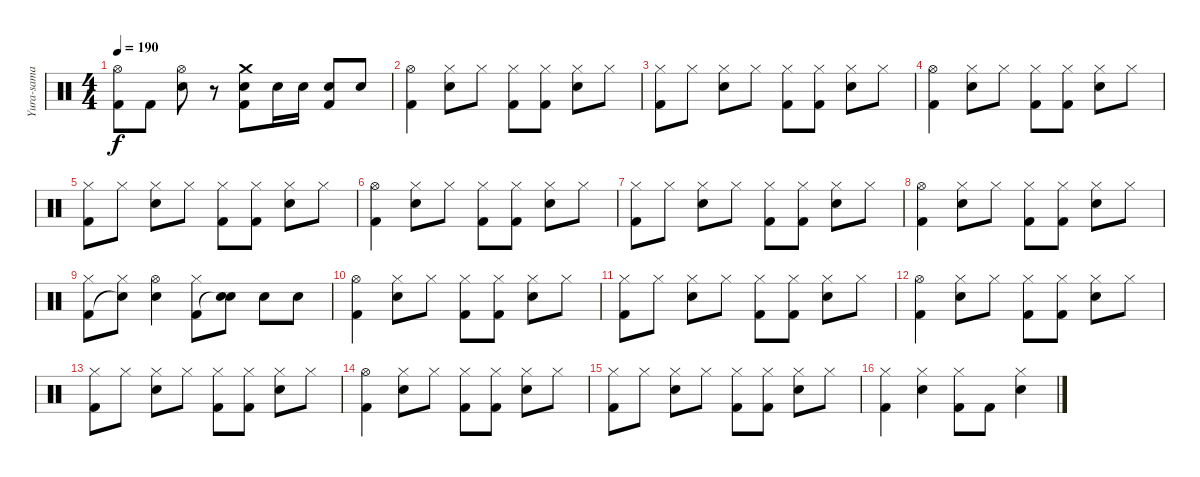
\track ("Yura-sama" "Yura-sama") {instrument percussion}
\staff {score}
\articulation defaults
\ts (4 4)
\tempo 190
\clef neutral
\ks c
("Hi-Hat (open)" "Kick (hit) 2").8{dy f} "Kick (hit) 2".8 ("Hi-Hat (open)" "Electric Snare (hit)").8 r.8 ("Kick (hit) 2" "Electric Snare (hit)" "Crash medium (hit)").8 "Electric Snare (hit)".16 "Electric Snare (hit)".16 ("Kick (hit) 2" "Electric Snare (hit)").8 "Electric Snare (hit)".8 |
("Hi-Hat (open)" "Kick (hit) 2").4 ("Hi-Hat (closed)" "Electric Snare (hit)").8 "Hi-Hat (closed)".8 ("Hi-Hat (closed)" "Kick (hit) 2").8 ("Hi-Hat (closed)" "Kick (hit) 2").8 ("Hi-Hat (closed)" "Electric Snare (hit)").8 "Hi-Hat (closed)".8 |
("Hi-Hat (closed)" "Kick (hit) 2").8 "Hi-Hat (closed)".8 ("Hi-Hat (closed)" "Electric Snare (hit)").8 "Hi-Hat (closed)".8 ("Hi-Hat (closed)" "Kick (hit) 2").8 ("Hi-Hat (closed)" "Kick (hit) 2").8 ("Hi-Hat (closed)" "Electric Snare (hit)").8 "Hi-Hat (closed)".8 |
("Hi-Hat (open)" "Kick (hit) 2").4 ("Hi-Hat (closed)" "Electric Snare (hit)").8 "Hi-Hat (closed)".8 ("Hi-Hat (closed)" "Kick (hit) 2").8 ("Hi-Hat (closed)" "Kick (hit) 2").8 ("Hi-Hat (closed)" "Electric Snare (hit)").8 "Hi-Hat (closed)".8 |
("Hi-Hat (closed)" "Kick (hit) 2").8 "Hi-Hat (closed)".8 ("Hi-Hat (closed)" "Electric Snare (hit)").8 "Hi-Hat (closed)".8 ("Hi-Hat (closed)" "Kick (hit) 2").8 ("Hi-Hat (closed)" "Kick (hit) 2").8 ("Hi-Hat (closed)" "Electric Snare (hit)").8 "Hi-Hat (closed)".8 |
("Hi-Hat (open)" "Kick (hit) 2").4 ("Hi-Hat (closed)" "Electric Snare (hit)").8 "Hi-Hat (closed)".8 ("Hi-Hat (closed)" "Kick (hit) 2").8 ("Hi-Hat (closed)" "Kick (hit) 2").8 ("Hi-Hat (closed)" "Electric Snare (hit)").8 "Hi-Hat (closed)".8 |
("Hi-Hat (closed)" "Kick (hit) 2").8 "Hi-Hat (closed)".8 ("Hi-Hat (closed)" "Electric Snare (hit)").8 "Hi-Hat (closed)".8 ("Hi-Hat (closed)" "Kick (hit) 2").8 ("Hi-Hat (closed)" "Kick (hit) 2").8 ("Hi-Hat (closed)" "Electric Snare (hit)").8 "Hi-Hat (closed)".8 |
("Hi-Hat (open)" "Kick (hit) 2").4 ("Hi-Hat (closed)" "Electric Snare (hit)").8 "Hi-Hat (closed)".8 ("Hi-Hat (closed)" "Kick (hit) 2").8 ("Hi-Hat (closed)" "Kick (hit) 2").8 ("Hi-Hat (closed)" "Electric Snare (hit)").8 "Hi-Hat (closed)".8 |
("Hi-Hat (closed)" "Kick (hit) 2").8 ("Hi-Hat (closed)" "Snare (hit)"{t}).8 ("Hi-Hat (open)" "Electric Snare (hit)").4 ("Hi-Hat (closed)" "Kick (hit) 2").8 ("Electric Snare (hit)" "Snare (hit)"{t}).8 "Electric Snare (hit)".8 "Electric Snare (hit)".8 |
("Hi-Hat (open)" "Kick (hit) 2").4 ("Hi-Hat (closed)" "Electric Snare (hit)").8 "Hi-Hat (closed)".8 ("Hi-Hat (closed)" "Kick (hit) 2").8 ("Hi-Hat (closed)" "Kick (hit) 2").8 ("Hi-Hat (closed)" "Electric Snare (hit)").8 "Hi-Hat (closed)".8 |
("Hi-Hat (closed)" "Kick (hit) 2").8 "Hi-Hat (closed)".8 ("Hi-Hat (closed)" "Electric Snare (hit)").8 "Hi-Hat (closed)".8 ("Hi-Hat (closed)" "Kick (hit) 2").8 ("Hi-Hat (closed)" "Kick (hit) 2").8 ("Hi-Hat (closed)" "Electric Snare (hit)").8 "Hi-Hat (closed)".8 |
("Hi-Hat (open)" "Kick (hit) 2").4 ("Hi-Hat (closed)" "Electric Snare (hit)").8 "Hi-Hat (closed)".8 ("Hi-Hat (closed)" "Kick (hit) 2").8 ("Hi-Hat (closed)" "Kick (hit) 2").8 ("Hi-Hat (closed)" "Electric Snare (hit)").8 "Hi-Hat (closed)".8 |
("Hi-Hat (closed)" "Kick (hit) 2").8 "Hi-Hat (closed)".8 ("Hi-Hat (closed)" "Electric Snare (hit)").8 "Hi-Hat (closed)".8 ("Hi-Hat (closed)" "Kick (hit) 2").8 ("Hi-Hat (closed)" "Kick (hit) 2").8 ("Hi-Hat (closed)" "Electric Snare (hit)").8 "Hi-Hat (closed)".8 |
("Hi-Hat (open)" "Kick (hit) 2").4 ("Hi-Hat (closed)" "Electric Snare (hit)").8 "Hi-Hat (closed)".8 ("Hi-Hat (closed)" "Kick (hit) 2").8 ("Hi-Hat (closed)" "Kick (hit) 2").8 ("Hi-Hat (closed)" "Electric Snare (hit)").8 "Hi-Hat (closed)".8 |
("Hi-Hat (closed)" "Kick (hit) 2").8 "Hi-Hat (closed)".8 ("Hi-Hat (closed)" "Electric Snare (hit)").8 "Hi-Hat (closed)".8 ("Hi-Hat (closed)" "Kick (hit) 2").8 ("Hi-Hat (closed)" "Kick (hit) 2").8 ("Hi-Hat (closed)" "Electric Snare (hit)").8 "Hi-Hat (closed)".8 |
("Hi-Hat (closed)" "Kick (hit) 2").4 ("Hi-Hat (closed)" "Electric Snare (hit)").4 ("Hi-Hat (closed)" "Kick (hit) 2").8 "Kick (hit) 2".8 ("Hi-Hat (closed)" "Electric Snare (hit)").4
